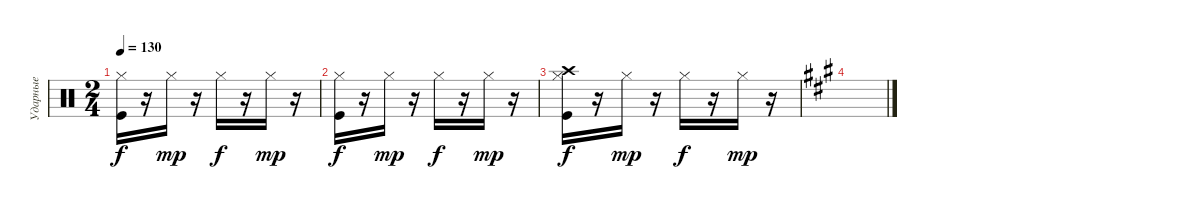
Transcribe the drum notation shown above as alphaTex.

\track ("Ударные" "Ударные") {instrument percussion}
\staff {score}
\articulation defaults
\ts (2 4)
\tempo 130
\clef neutral
\ks c
("Kick (hit)" "Hi-Hat (closed)").16{dy f} r.16 "Hi-Hat (closed)".16{dy mp} r.16 "Hi-Hat (closed)".16{dy f} r.16 "Hi-Hat (closed)".16{dy mp} r.16 |
("Kick (hit)" "Hi-Hat (closed)").16{dy f} r.16 "Hi-Hat (closed)".16{dy mp} r.16 "Hi-Hat (closed)".16{dy f} r.16 "Hi-Hat (closed)".16{dy mp} r.16 |
("Kick (hit)" "Hi-Hat (closed)" "Crash high (hit)").16{dy f} r.16 "Hi-Hat (closed)".16{dy mp} r.16 "Hi-Hat (closed)".16{dy f} r.16 "Hi-Hat (closed)".16{dy mp} r.16 |
\ks a
